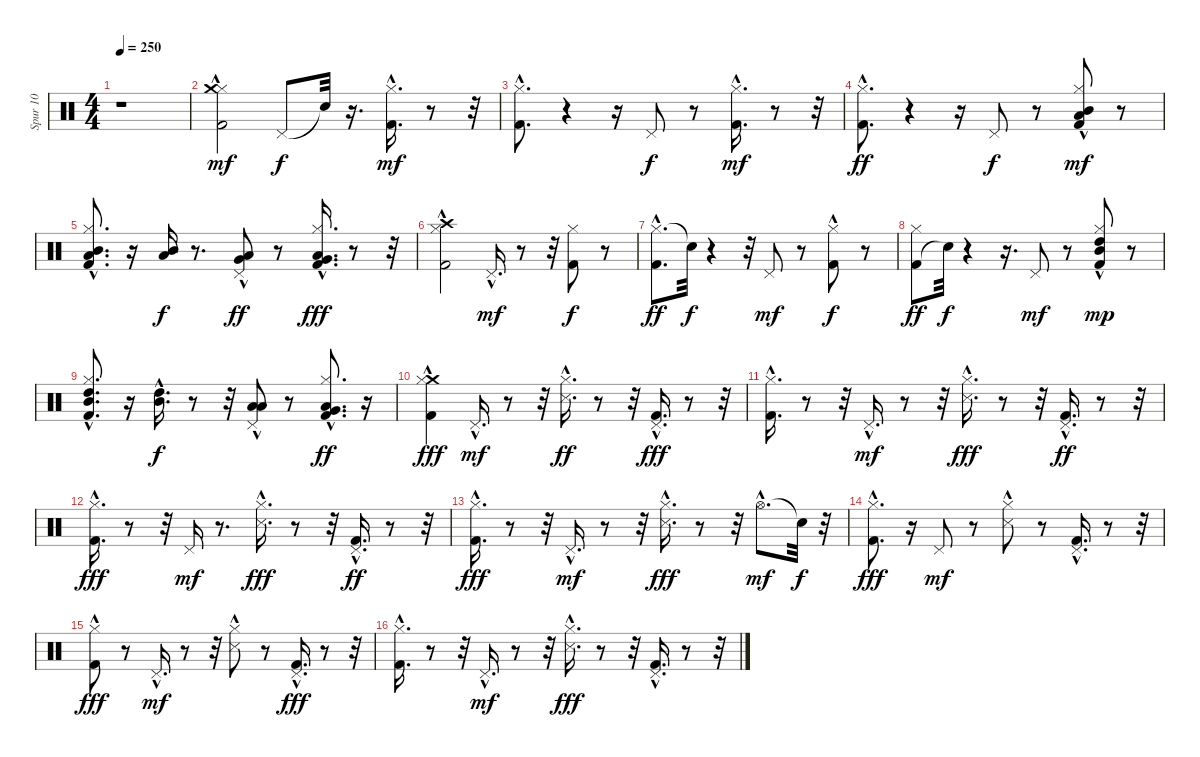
\track ("Spur 10" "Spur 10") {instrument percussion}
\staff {score}
\articulation defaults
\ts (4 4)
\tempo 250
\clef neutral
\ks c
r.1{dy mf} |
("Kick (hit) 2"{hac} "Hi-Hat (closed)" "Crash medium (hit)").2 "Pedal Hi-Hat (hit)".8{dy f} "Snare (hit)"{t}.32 r.16{d} ("Kick (hit) 2"{hac} "Hi-Hat (closed)"{hac}).16{d dy mf} r.8 r.32 |
("Kick (hit) 2"{hac} "Hi-Hat (closed)").8{d} r.4 r.16 "Pedal Hi-Hat (hit)".8{dy f} r.8 ("Kick (hit) 2"{hac} "Hi-Hat (closed)"{hac}).16{d dy mf} r.8 r.32 |
("Hi-Hat (closed)" "Kick (hit) 2"{hac}).8{d dy ff} r.4 r.16 "Pedal Hi-Hat (hit)".8{dy f} r.8 ("Kick (hit) 2" "Hi-Hat (closed)"{hac} "Mid Tom (hit)"{hac} "Low Tom (hit)"{hac}).8{dy mf} r.8 |
("Hi-Hat (closed)" "Kick (hit) 2"{hac} "Mid Tom (hit)"{hac} "Low Tom (hit)"{hac}).8{d} r.16 ("Mid Tom (hit)" "Low Tom (hit)").16{dy f} r.8{d} ("Pedal Hi-Hat (hit)" "Very Low Tom (hit)"{hac} "Low Tom (hit)").8{dy ff} r.8 ("Kick (hit) 2"{hac} "Hi-Hat (closed)"{hac} "Very Low Tom (hit)" "Low Tom (hit)").16{d dy fff} r.8 r.32 |
("Hi-Hat (closed)" "Kick (hit) 2"{hac} "Crash high (hit)"{hac}).2 "Pedal Hi-Hat (hit)"{hac}.16{d dy mf} r.8 r.32 ("Kick (hit) 2" "Hi-Hat (closed)").8{dy f} r.8 |
("Hi-Hat (closed)" "Kick (hit) 2"{hac}).8{d dy ff} "Snare (hit)"{t}.32{dy f} r.4 r.32 "Pedal Hi-Hat (hit)".8{dy mf} r.8 ("Kick (hit) 2" "Hi-Hat (closed)"{hac}).8{dy f} r.8 |
("Kick (hit) 2" "Hi-Hat (closed)").8{dy ff} "Snare (hit)"{t}.32{dy f} r.4 r.16{d} "Pedal Hi-Hat (hit)".8{dy mf} r.8 ("Hi-Hat (closed)"{hac} "Kick (hit) 2" "Mid Tom (hit)"{hac} "High Tom (hit)").8{dy mp} r.8 |
("Mid Tom (hit)"{hac} "Kick (hit) 2"{hac} "Hi-Hat (closed)" "High Tom (hit)"{hac}).8{d} r.16 ("Mid Tom (hit)"{hac} "High Tom (hit)"{hac}).16{d dy f} r.8 r.32 ("Pedal Hi-Hat (hit)" "Low Tom (hit)"{hac} "Low Tom (hit)"{hac}).8 r.8 ("Hi-Hat (closed)"{hac} "Kick (hit) 2"{hac} "Very Low Tom (hit)" "Low Tom (hit)").8{d dy ff} r.16 |
("Crash medium (hit)"{hac} "Hi-Hat (closed)"{hac} "Kick (hit) 2").4{dy fff} "Pedal Hi-Hat (hit)"{hac}.16{d dy mf} r.8 r.32 ("Hi-Hat (closed)"{hac} "Snare (side stick) 3"{hac}).16{d dy ff} r.8 r.32 ("Pedal Hi-Hat (hit)"{hac} "Kick (hit) 2"{hac}).16{d dy fff} r.8 r.32 |
("Hi-Hat (closed)"{hac} "Kick (hit) 2"{hac}).16{d} r.8 r.32 "Pedal Hi-Hat (hit)"{hac}.16{d dy mf} r.8 r.32 ("Hi-Hat (closed)"{hac} "Snare (side stick) 3"{hac}).16{d dy fff} r.8 r.32 ("Pedal Hi-Hat (hit)"{hac} "Kick (hit) 2"{hac}).16{d dy ff} r.8 r.32 |
("Hi-Hat (closed)"{hac} "Kick (hit) 2"{hac}).16{d dy fff} r.8 r.32 "Pedal Hi-Hat (hit)".16{dy mf} r.8{d} ("Hi-Hat (closed)"{hac} "Snare (side stick) 3"{hac}).16{d dy fff} r.8 r.32 ("Pedal Hi-Hat (hit)"{hac} "Kick (hit) 2"{hac}).16{d dy ff} r.8 r.32 |
("Hi-Hat (closed)"{hac} "Kick (hit) 2"{hac}).16{d dy fff} r.8 r.32 "Pedal Hi-Hat (hit)"{hac}.16{d dy mf} r.8 r.32 ("Hi-Hat (closed)"{hac} "Snare (side stick) 3"{hac}).16{d dy fff} r.8 r.32 "Hi-Hat (open)"{hac}.8{d dy mf} "Snare (hit)"{t}.32{dy f} r.32 |
("Hi-Hat (closed)"{hac} "Kick (hit) 2").8{d dy fff} r.16 "Pedal Hi-Hat (hit)".8{dy mf} r.8 ("Snare (side stick) 3"{hac} "Hi-Hat (closed)").8 r.8 ("Pedal Hi-Hat (hit)"{hac} "Kick (hit) 2"{hac}).16{d} r.8 r.32 |
("Hi-Hat (closed)"{hac} "Kick (hit) 2").8{dy fff} r.8 "Pedal Hi-Hat (hit)"{hac}.16{d dy mf} r.8 r.32 ("Snare (side stick) 3"{hac} "Hi-Hat (closed)").8 r.8 ("Pedal Hi-Hat (hit)"{hac} "Kick (hit) 2"{hac}).16{d dy fff} r.8 r.32 |
("Hi-Hat (closed)"{hac} "Kick (hit) 2"{hac}).16{d} r.8 r.32 "Pedal Hi-Hat (hit)"{hac}.16{d dy mf} r.8 r.32 ("Hi-Hat (closed)"{hac} "Snare (side stick) 3"{hac}).16{d dy fff} r.8 r.32 ("Pedal Hi-Hat (hit)"{hac} "Kick (hit) 2"{hac}).16{d} r.8 r.32
